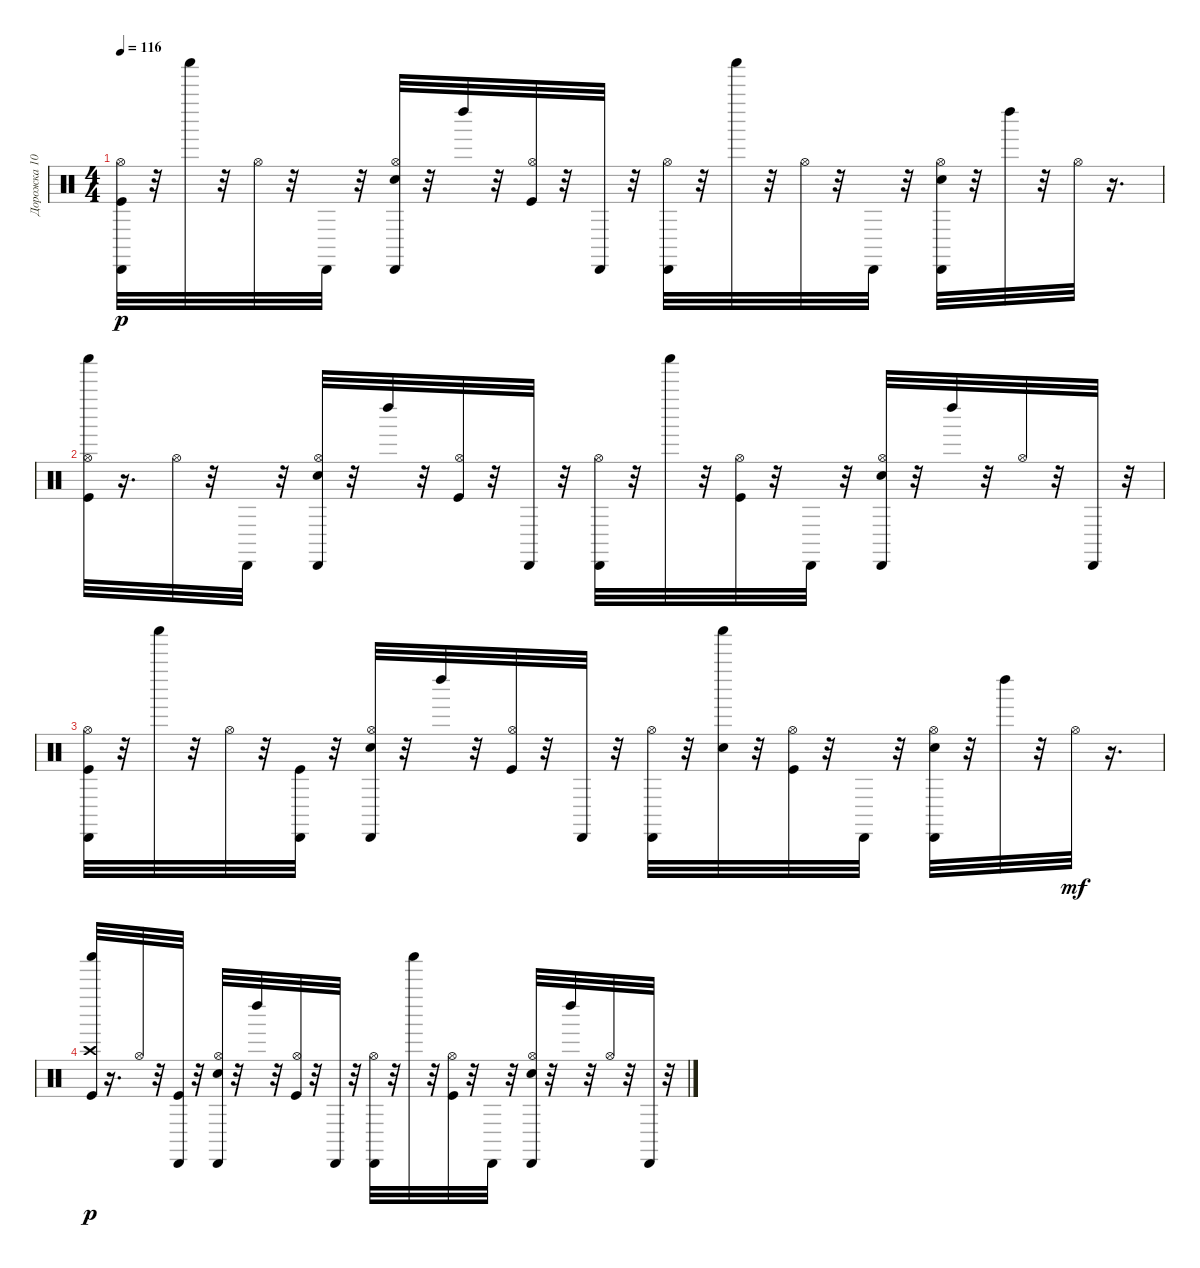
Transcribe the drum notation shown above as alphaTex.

\track ("Дорожка 10" "Дорожка 10") {instrument percussion}
\staff {score}
\articulation defaults
\ts (4 4)
\tempo 116
\clef neutral
\ks c
("Kick (hit)" "Hi-Hat (open)" "Cabasa (hit)").32{dy p} r.32 "Shaker (hit)".32 r.32 "Hi-Hat (open)".32 r.32 "Cabasa (hit)".32 r.32 ("Electric Snare (hit)" "Hi-Hat (open)" "Cabasa (hit)").32 r.32 "Left Maraca (hit)".32 r.32 ("Kick (hit)" "Hi-Hat (open)").32 r.32 "Cabasa (hit)".32 r.32 ("Hi-Hat (open)" "Cabasa (hit)").32 r.32 "Shaker (hit)".32 r.32 "Hi-Hat (open)".32 r.32 "Cabasa (hit)".32 r.32 ("Electric Snare (hit)" "Hi-Hat (open)" "Cabasa (hit)").32 r.32 "Left Maraca (hit)".32 r.32 "Hi-Hat (open)".32 r.16{d} |
("Kick (hit)" "Hi-Hat (open)" "Shaker (hit)").32 r.16{d} "Hi-Hat (open)".32 r.32 "Cabasa (hit)".32 r.32 ("Electric Snare (hit)" "Hi-Hat (open)" "Cabasa (hit)").32 r.32 "Left Maraca (hit)".32 r.32 ("Kick (hit)" "Hi-Hat (open)").32 r.32 "Cabasa (hit)".32 r.32 ("Hi-Hat (open)" "Cabasa (hit)").32 r.32 "Shaker (hit)".32 r.32 ("Kick (hit)" "Hi-Hat (open)").32 r.32 "Cabasa (hit)".32 r.32 ("Electric Snare (hit)" "Hi-Hat (open)" "Cabasa (hit)").32 r.32 "Left Maraca (hit)".32 r.32 "Hi-Hat (open)".32 r.32 "Cabasa (hit)".32 r.32 |
("Kick (hit)" "Hi-Hat (open)" "Cabasa (hit)").32 r.32 "Shaker (hit)".32 r.32 "Hi-Hat (open)".32 r.32 ("Kick (hit)" "Cabasa (hit)").32 r.32 ("Electric Snare (hit)" "Hi-Hat (open)" "Cabasa (hit)").32 r.32 "Left Maraca (hit)".32 r.32 ("Kick (hit)" "Hi-Hat (open)").32 r.32 "Cabasa (hit)".32 r.32 ("Hi-Hat (open)" "Cabasa (hit)").32 r.32 ("Electric Snare (hit)" "Shaker (hit)").32 r.32 ("Hi-Hat (open)" "Kick (hit)").32 r.32 "Cabasa (hit)".32 r.32 ("Electric Snare (hit)" "Hi-Hat (open)" "Cabasa (hit)").32 r.32 "Left Maraca (hit)".32 r.32 "Hi-Hat (open)".32{dy mf} r.16{d} |
("Kick (hit)" "Crash high (hit)" "Shaker (hit)").32{dy p} r.16{d} "Hi-Hat (open)".32 r.32 ("Kick (hit)" "Cabasa (hit)").32 r.32 ("Electric Snare (hit)" "Hi-Hat (open)" "Cabasa (hit)").32 r.32 "Left Maraca (hit)".32 r.32 ("Kick (hit)" "Hi-Hat (open)").32 r.32 "Cabasa (hit)".32 r.32 ("Hi-Hat (open)" "Cabasa (hit)").32 r.32 "Shaker (hit)".32 r.32 ("Kick (hit)" "Hi-Hat (open)").32 r.32 "Cabasa (hit)".32 r.32 ("Electric Snare (hit)" "Hi-Hat (open)" "Cabasa (hit)").32 r.32 "Left Maraca (hit)".32 r.32 "Hi-Hat (open)".32 r.32 "Cabasa (hit)".32 r.32
